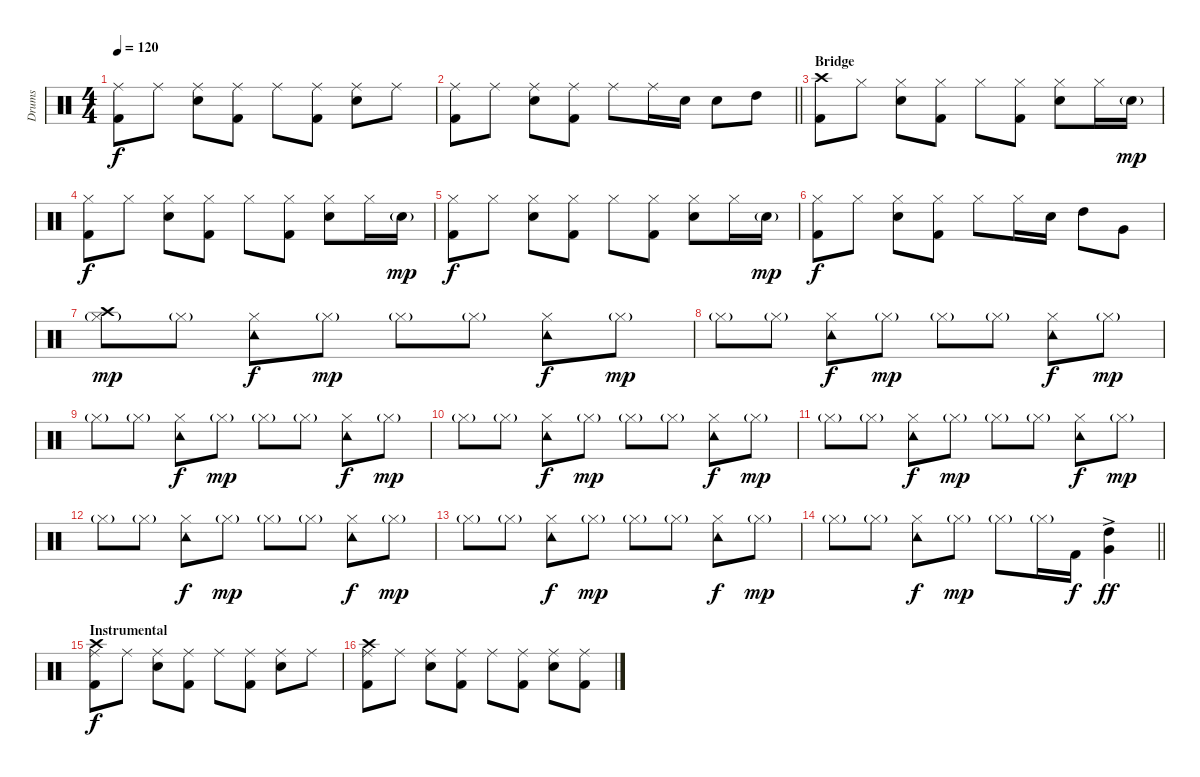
\track ("Drums" "Drums") {instrument percussion}
\staff {score}
\articulation defaults
\ts (4 4)
\tempo 120
\clef neutral
\ks c
("Kick (hit) 2" "Ride (middle)").8{dy f} "Ride (middle)".8 ("Electric Snare (hit)" "Ride (middle)").8 ("Kick (hit) 2" "Ride (middle)").8 "Ride (middle)".8 ("Kick (hit) 2" "Ride (middle)").8 ("Electric Snare (hit)" "Ride (middle)").8 "Ride (middle)".8 |
\barLineRight lightlight
("Kick (hit) 2" "Ride (middle)").8 "Ride (middle)".8 ("Electric Snare (hit)" "Ride (middle)").8 ("Kick (hit) 2" "Ride (middle)").8 "Ride (middle)".8 "Ride (middle)".16 "Electric Snare (hit)".16 "Electric Snare (hit)".8 "High Tom (hit)".8 |
\section ("" "Bridge")
("Kick (hit) 2" "Crash high (hit)").8 "Hi-Hat (closed)".8 ("Electric Snare (hit)" "Hi-Hat (closed)").8 ("Kick (hit) 2" "Hi-Hat (closed)").8 "Hi-Hat (closed)".8 ("Kick (hit) 2" "Hi-Hat (closed)").8 ("Electric Snare (hit)" "Hi-Hat (closed)").8 "Hi-Hat (closed)".16 "Electric Snare (hit)"{g}.16{dy mp} |
("Kick (hit) 2" "Hi-Hat (closed)").8{dy f} "Hi-Hat (closed)".8 ("Electric Snare (hit)" "Hi-Hat (closed)").8 ("Kick (hit) 2" "Hi-Hat (closed)").8 "Hi-Hat (closed)".8 ("Kick (hit) 2" "Hi-Hat (closed)").8 ("Electric Snare (hit)" "Hi-Hat (closed)").8 "Hi-Hat (closed)".16 "Electric Snare (hit)"{g}.16{dy mp} |
("Kick (hit) 2" "Hi-Hat (closed)").8{dy f} "Hi-Hat (closed)".8 ("Electric Snare (hit)" "Hi-Hat (closed)").8 ("Kick (hit) 2" "Hi-Hat (closed)").8 "Hi-Hat (closed)".8 ("Kick (hit) 2" "Hi-Hat (closed)").8 ("Electric Snare (hit)" "Hi-Hat (closed)").8 "Hi-Hat (closed)".16 "Electric Snare (hit)"{g}.16{dy mp} |
("Kick (hit) 2" "Hi-Hat (closed)").8{dy f} "Hi-Hat (closed)".8 ("Electric Snare (hit)" "Hi-Hat (closed)").8 ("Kick (hit) 2" "Hi-Hat (closed)").8 "Hi-Hat (closed)".8 "Hi-Hat (closed)".16 "Electric Snare (hit)".16 "High Tom (hit)".8 "Very Low Tom (hit)".8 |
("Hi-Hat (closed)"{g} "Crash high (hit)").8{dy mp} "Hi-Hat (closed)"{g}.8 ("Tambourine (hit)" "Hi-Hat (closed)").8{dy f} "Hi-Hat (closed)"{g}.8{dy mp} "Hi-Hat (closed)"{g}.8 "Hi-Hat (closed)"{g}.8 ("Tambourine (hit)" "Hi-Hat (closed)").8{dy f} "Hi-Hat (closed)"{g}.8{dy mp} |
"Hi-Hat (closed)"{g}.8 "Hi-Hat (closed)"{g}.8 ("Tambourine (hit)" "Hi-Hat (closed)").8{dy f} "Hi-Hat (closed)"{g}.8{dy mp} "Hi-Hat (closed)"{g}.8 "Hi-Hat (closed)"{g}.8 ("Tambourine (hit)" "Hi-Hat (closed)").8{dy f} "Hi-Hat (closed)"{g}.8{dy mp} |
"Hi-Hat (closed)"{g}.8 "Hi-Hat (closed)"{g}.8 ("Tambourine (hit)" "Hi-Hat (closed)").8{dy f} "Hi-Hat (closed)"{g}.8{dy mp} "Hi-Hat (closed)"{g}.8 "Hi-Hat (closed)"{g}.8 ("Tambourine (hit)" "Hi-Hat (closed)").8{dy f} "Hi-Hat (closed)"{g}.8{dy mp} |
"Hi-Hat (closed)"{g}.8 "Hi-Hat (closed)"{g}.8 ("Tambourine (hit)" "Hi-Hat (closed)").8{dy f} "Hi-Hat (closed)"{g}.8{dy mp} "Hi-Hat (closed)"{g}.8 "Hi-Hat (closed)"{g}.8 ("Tambourine (hit)" "Hi-Hat (closed)").8{dy f} "Hi-Hat (closed)"{g}.8{dy mp} |
"Hi-Hat (closed)"{g}.8 "Hi-Hat (closed)"{g}.8 ("Tambourine (hit)" "Hi-Hat (closed)").8{dy f} "Hi-Hat (closed)"{g}.8{dy mp} "Hi-Hat (closed)"{g}.8 "Hi-Hat (closed)"{g}.8 ("Tambourine (hit)" "Hi-Hat (closed)").8{dy f} "Hi-Hat (closed)"{g}.8{dy mp} |
"Hi-Hat (closed)"{g}.8 "Hi-Hat (closed)"{g}.8 ("Tambourine (hit)" "Hi-Hat (closed)").8{dy f} "Hi-Hat (closed)"{g}.8{dy mp} "Hi-Hat (closed)"{g}.8 "Hi-Hat (closed)"{g}.8 ("Tambourine (hit)" "Hi-Hat (closed)").8{dy f} "Hi-Hat (closed)"{g}.8{dy mp} |
"Hi-Hat (closed)"{g}.8 "Hi-Hat (closed)"{g}.8 ("Tambourine (hit)" "Hi-Hat (closed)").8{dy f} "Hi-Hat (closed)"{g}.8{dy mp} "Hi-Hat (closed)"{g}.8 "Hi-Hat (closed)"{g}.8 ("Tambourine (hit)" "Hi-Hat (closed)").8{dy f} "Hi-Hat (closed)"{g}.8{dy mp} |
\barLineRight lightlight "Hi-Hat (closed)"{g}.8 "Hi-Hat (closed)"{g}.8
("Tambourine (hit)" "Hi-Hat (closed)").8{dy f} "Hi-Hat (closed)"{g}.8{dy mp} "Hi-Hat (closed)"{g}.8 "Hi-Hat (closed)"{g}.16 "Kick (hit) 2".16{dy f} ("High Tom (hit)"{ac} "Very Low Tom (hit)"{ac}).4{dy ff} |
\section ("" "Instrumental")
("Kick (hit) 2" "Ride (middle)" "Crash high (hit)").8{dy f} "Ride (middle)".8 ("Electric Snare (hit)" "Ride (middle)").8 ("Kick (hit) 2" "Ride (middle)").8 "Ride (middle)".8 ("Kick (hit) 2" "Ride (middle)").8 ("Electric Snare (hit)" "Ride (middle)").8 "Ride (middle)".8 |
("Kick (hit) 2" "Ride (middle)" "Crash high (hit)").8 "Ride (middle)".8 ("Electric Snare (hit)" "Ride (middle)").8 ("Kick (hit) 2" "Ride (middle)").8 "Ride (middle)".8 ("Kick (hit) 2" "Ride (middle)").8 ("Electric Snare (hit)" "Ride (middle)").8 ("Kick (hit) 2" "Ride (middle)").8
